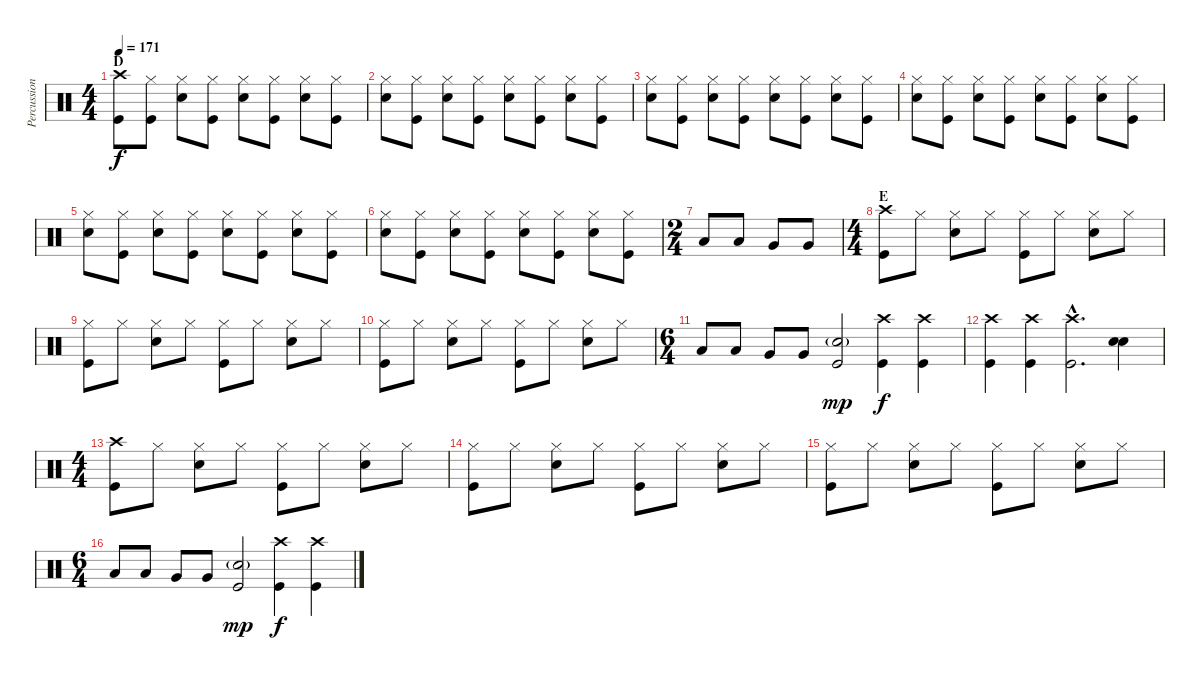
\track ("Percussions" "Percussion") {instrument percussion}
\staff {score}
\articulation defaults
\ts (4 4)
\section ("" "D")
\tempo 171
\clef neutral
\ks c
("Crash high (hit)" "Kick (hit)").8{dy f} ("Hi-Hat (closed)" "Kick (hit)").8 ("Hi-Hat (closed)" "Electric Snare (hit)").8 ("Hi-Hat (closed)" "Kick (hit)").8 ("Hi-Hat (closed)" "Electric Snare (hit)").8 ("Hi-Hat (closed)" "Kick (hit)").8 ("Hi-Hat (closed)" "Electric Snare (hit)").8 ("Hi-Hat (closed)" "Kick (hit)").8 |
("Hi-Hat (closed)" "Electric Snare (hit)").8 ("Hi-Hat (closed)" "Kick (hit)").8 ("Hi-Hat (closed)" "Electric Snare (hit)").8 ("Hi-Hat (closed)" "Kick (hit)").8 ("Hi-Hat (closed)" "Electric Snare (hit)").8 ("Hi-Hat (closed)" "Kick (hit)").8 ("Hi-Hat (closed)" "Electric Snare (hit)").8 ("Hi-Hat (closed)" "Kick (hit)").8 |
("Hi-Hat (closed)" "Electric Snare (hit)").8 ("Hi-Hat (closed)" "Kick (hit)").8 ("Hi-Hat (closed)" "Electric Snare (hit)").8 ("Hi-Hat (closed)" "Kick (hit)").8 ("Hi-Hat (closed)" "Electric Snare (hit)").8 ("Hi-Hat (closed)" "Kick (hit)").8 ("Hi-Hat (closed)" "Electric Snare (hit)").8 ("Hi-Hat (closed)" "Kick (hit)").8 |
("Hi-Hat (closed)" "Electric Snare (hit)").8 ("Hi-Hat (closed)" "Kick (hit)").8 ("Hi-Hat (closed)" "Electric Snare (hit)").8 ("Hi-Hat (closed)" "Kick (hit)").8 ("Hi-Hat (closed)" "Electric Snare (hit)").8 ("Hi-Hat (closed)" "Kick (hit)").8 ("Hi-Hat (closed)" "Electric Snare (hit)").8 ("Hi-Hat (closed)" "Kick (hit)").8 |
("Hi-Hat (closed)" "Electric Snare (hit)").8 ("Hi-Hat (closed)" "Kick (hit)").8 ("Hi-Hat (closed)" "Electric Snare (hit)").8 ("Hi-Hat (closed)" "Kick (hit)").8 ("Hi-Hat (closed)" "Electric Snare (hit)").8 ("Hi-Hat (closed)" "Kick (hit)").8 ("Hi-Hat (closed)" "Electric Snare (hit)").8 ("Hi-Hat (closed)" "Kick (hit)").8 |
("Hi-Hat (closed)" "Electric Snare (hit)").8 ("Hi-Hat (closed)" "Kick (hit)").8 ("Hi-Hat (closed)" "Electric Snare (hit)").8 ("Hi-Hat (closed)" "Kick (hit)").8 ("Hi-Hat (closed)" "Electric Snare (hit)").8 ("Hi-Hat (closed)" "Kick (hit)").8 ("Hi-Hat (closed)" "Electric Snare (hit)").8 ("Hi-Hat (closed)" "Kick (hit)").8 |
\ts (2 4)
"Low Tom (hit)".8 "Low Tom (hit)".8 "Very Low Tom (hit)".8 "Very Low Tom (hit)".8 |
\ts (4 4)
\section ("" "E")
("Crash high (hit)" "Kick (hit)").8 "Hi-Hat (closed)".8 ("Hi-Hat (closed)" "Electric Snare (hit)").8 "Hi-Hat (closed)".8 ("Hi-Hat (closed)" "Kick (hit)").8 "Hi-Hat (closed)".8 ("Hi-Hat (closed)" "Electric Snare (hit)").8 "Hi-Hat (closed)".8 |
("Hi-Hat (closed)" "Kick (hit)").8 "Hi-Hat (closed)".8 ("Hi-Hat (closed)" "Electric Snare (hit)").8 "Hi-Hat (closed)".8 ("Hi-Hat (closed)" "Kick (hit)").8 "Hi-Hat (closed)".8 ("Hi-Hat (closed)" "Electric Snare (hit)").8 "Hi-Hat (closed)".8 |
("Hi-Hat (closed)" "Kick (hit)").8 "Hi-Hat (closed)".8 ("Hi-Hat (closed)" "Electric Snare (hit)").8 "Hi-Hat (closed)".8 ("Hi-Hat (closed)" "Kick (hit)").8 "Hi-Hat (closed)".8 ("Hi-Hat (closed)" "Electric Snare (hit)").8 "Hi-Hat (closed)".8 |
\ts (6 4)
"Low Tom (hit)".8 "Low Tom (hit)".8 "Very Low Tom (hit)".8 "Very Low Tom (hit)".8 ("Electric Snare (hit)"{g} "Kick (hit)").2{dy mp} ("Crash high (hit)" "Kick (hit)").4{dy f} ("Crash high (hit)" "Kick (hit)").4 |
("Crash high (hit)" "Kick (hit)").4 ("Crash high (hit)" "Kick (hit)").4 ("Crash high (hit)"{hac} "Kick (hit)"{hac}).2{d} ("Electric Snare (hit)" "Electric Snare (hit)").4{bd 120} |
\ts (4 4)
("Crash high (hit)" "Kick (hit)").8 "Hi-Hat (closed)".8 ("Hi-Hat (closed)" "Electric Snare (hit)").8 "Hi-Hat (closed)".8 ("Hi-Hat (closed)" "Kick (hit)").8 "Hi-Hat (closed)".8 ("Hi-Hat (closed)" "Electric Snare (hit)").8 "Hi-Hat (closed)".8 |
("Hi-Hat (closed)" "Kick (hit)").8 "Hi-Hat (closed)".8 ("Hi-Hat (closed)" "Electric Snare (hit)").8 "Hi-Hat (closed)".8 ("Hi-Hat (closed)" "Kick (hit)").8 "Hi-Hat (closed)".8 ("Hi-Hat (closed)" "Electric Snare (hit)").8 "Hi-Hat (closed)".8 |
("Hi-Hat (closed)" "Kick (hit)").8 "Hi-Hat (closed)".8 ("Hi-Hat (closed)" "Electric Snare (hit)").8 "Hi-Hat (closed)".8 ("Hi-Hat (closed)" "Kick (hit)").8 "Hi-Hat (closed)".8 ("Hi-Hat (closed)" "Electric Snare (hit)").8 "Hi-Hat (closed)".8 |
\ts (6 4)
"Low Tom (hit)".8 "Low Tom (hit)".8 "Very Low Tom (hit)".8 "Very Low Tom (hit)".8 ("Electric Snare (hit)"{g} "Kick (hit)").2{dy mp} ("Crash high (hit)" "Kick (hit)").4{dy f} ("Crash high (hit)" "Kick (hit)").4
